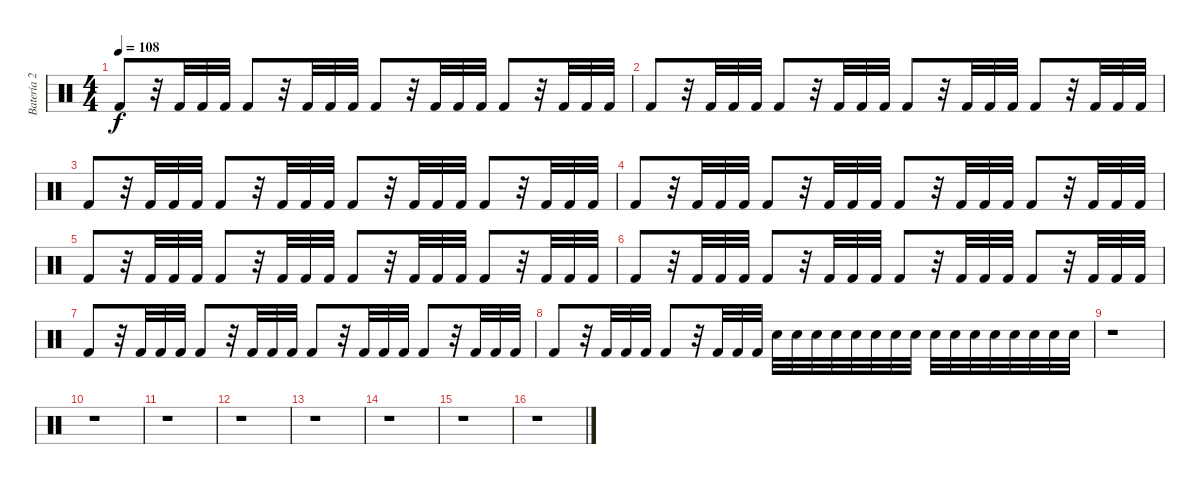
\track ("Batería 2" "Batería 2") {instrument percussion}
\staff {score}
\articulation defaults
\ts (4 4)
\tempo 108
\clef neutral
\ks c "Kick (hit) 2".8{dy f}
r.32 "Kick (hit) 2".32 "Kick (hit) 2".32 "Kick (hit) 2".32 "Kick (hit) 2".8 r.32 "Kick (hit) 2".32 "Kick (hit) 2".32 "Kick (hit) 2".32 "Kick (hit) 2".8 r.32 "Kick (hit) 2".32 "Kick (hit) 2".32 "Kick (hit) 2".32 "Kick (hit) 2".8 r.32 "Kick (hit) 2".32 "Kick (hit) 2".32 "Kick (hit) 2".32 |
"Kick (hit) 2".8 r.32 "Kick (hit) 2".32 "Kick (hit) 2".32 "Kick (hit) 2".32 "Kick (hit) 2".8 r.32 "Kick (hit) 2".32 "Kick (hit) 2".32 "Kick (hit) 2".32 "Kick (hit) 2".8 r.32 "Kick (hit) 2".32 "Kick (hit) 2".32 "Kick (hit) 2".32 "Kick (hit) 2".8 r.32 "Kick (hit) 2".32 "Kick (hit) 2".32 "Kick (hit) 2".32 |
"Kick (hit) 2".8 r.32 "Kick (hit) 2".32 "Kick (hit) 2".32 "Kick (hit) 2".32 "Kick (hit) 2".8 r.32 "Kick (hit) 2".32 "Kick (hit) 2".32 "Kick (hit) 2".32 "Kick (hit) 2".8 r.32 "Kick (hit) 2".32 "Kick (hit) 2".32 "Kick (hit) 2".32 "Kick (hit) 2".8 r.32 "Kick (hit) 2".32 "Kick (hit) 2".32 "Kick (hit) 2".32 |
"Kick (hit) 2".8 r.32 "Kick (hit) 2".32 "Kick (hit) 2".32 "Kick (hit) 2".32 "Kick (hit) 2".8 r.32 "Kick (hit) 2".32 "Kick (hit) 2".32 "Kick (hit) 2".32 "Kick (hit) 2".8 r.32 "Kick (hit) 2".32 "Kick (hit) 2".32 "Kick (hit) 2".32 "Kick (hit) 2".8 r.32 "Kick (hit) 2".32 "Kick (hit) 2".32 "Kick (hit) 2".32 |
"Kick (hit) 2".8 r.32 "Kick (hit) 2".32 "Kick (hit) 2".32 "Kick (hit) 2".32 "Kick (hit) 2".8 r.32 "Kick (hit) 2".32 "Kick (hit) 2".32 "Kick (hit) 2".32 "Kick (hit) 2".8 r.32 "Kick (hit) 2".32 "Kick (hit) 2".32 "Kick (hit) 2".32 "Kick (hit) 2".8 r.32 "Kick (hit) 2".32 "Kick (hit) 2".32 "Kick (hit) 2".32 |
"Kick (hit) 2".8 r.32 "Kick (hit) 2".32 "Kick (hit) 2".32 "Kick (hit) 2".32 "Kick (hit) 2".8 r.32 "Kick (hit) 2".32 "Kick (hit) 2".32 "Kick (hit) 2".32 "Kick (hit) 2".8 r.32 "Kick (hit) 2".32 "Kick (hit) 2".32 "Kick (hit) 2".32 "Kick (hit) 2".8 r.32 "Kick (hit) 2".32 "Kick (hit) 2".32 "Kick (hit) 2".32 |
"Kick (hit) 2".8 r.32 "Kick (hit) 2".32 "Kick (hit) 2".32 "Kick (hit) 2".32 "Kick (hit) 2".8 r.32 "Kick (hit) 2".32 "Kick (hit) 2".32 "Kick (hit) 2".32 "Kick (hit) 2".8 r.32 "Kick (hit) 2".32 "Kick (hit) 2".32 "Kick (hit) 2".32 "Kick (hit) 2".8 r.32 "Kick (hit) 2".32 "Kick (hit) 2".32 "Kick (hit) 2".32 |
"Kick (hit) 2".8 r.32 "Kick (hit) 2".32 "Kick (hit) 2".32 "Kick (hit) 2".32 "Kick (hit) 2".8 r.32 "Kick (hit) 2".32 "Kick (hit) 2".32 "Kick (hit) 2".32 "Snare (hit) 2".32 "Snare (hit) 2".32 "Snare (hit) 2".32 "Snare (hit) 2".32 "Snare (hit) 2".32 "Snare (hit) 2".32 "Snare (hit) 2".32 "Snare (hit) 2".32 "Snare (hit) 2".32 "Snare (hit) 2".32 "Snare (hit) 2".32 "Snare (hit) 2".32 "Snare (hit) 2".32 "Snare (hit) 2".32 "Snare (hit) 2".32 "Snare (hit) 2".32 |
r.1 |
r.1 |
r.1 |
r.1 |
r.1 |
r.1 |
r.1 |
r.1
